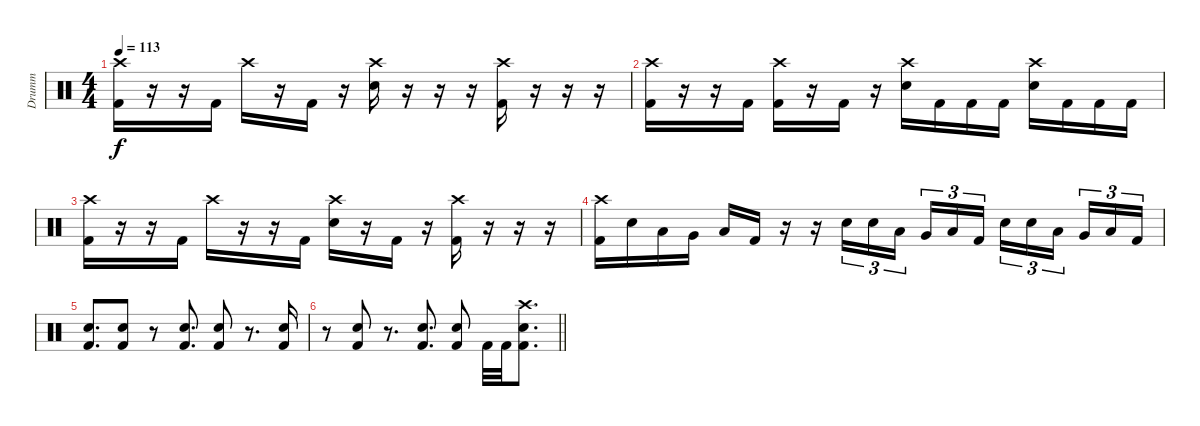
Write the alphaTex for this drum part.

\track ("Drumm" "Drumm") {instrument percussion}
\staff {score}
\articulation defaults
\ts (4 4)
\tempo 113
\clef neutral
\ks c
("Crash high (hit)" "Kick (hit) 2").16{dy f} r.16 r.16 "Kick (hit) 2".16 "Crash high (hit)".16 r.16 "Kick (hit) 2".16 r.16 ("Crash high (hit)" "Electric Snare (hit)").16 r.16 r.16 r.16 ("Crash high (hit)" "Kick (hit) 2").16 r.16 r.16 r.16 |
("Crash high (hit)" "Kick (hit) 2").16 r.16 r.16 "Kick (hit) 2".16 ("Crash high (hit)" "Kick (hit) 2").16 r.16 "Kick (hit) 2".16 r.16 ("Crash high (hit)" "Electric Snare (hit)").16 "Kick (hit) 2".16 "Kick (hit) 2".16 "Kick (hit) 2".16 ("Crash high (hit)" "Electric Snare (hit)").16 "Kick (hit) 2".16 "Kick (hit) 2".16 "Kick (hit) 2".16 |
("Crash high (hit)" "Kick (hit) 2").16 r.16 r.16 "Kick (hit) 2".16 "Crash high (hit)".16 r.16 r.16 "Kick (hit) 2".16 ("Crash high (hit)" "Electric Snare (hit)").16 r.16 "Kick (hit) 2".16 r.16 ("Crash high (hit)" "Kick (hit) 2").16 r.16 r.16 r.16 |
("Crash high (hit)" "Kick (hit) 2").16 "Electric Snare (hit)".16 "Low Tom (hit)".16 "Very Low Tom (hit)".16 "Low Floor Tom (hit)".16 "Kick (hit) 2".16 r.16 r.16 "Electric Snare (hit)".16{tu (3 2)} "Electric Snare (hit)".16{tu (3 2)} "Low Tom (hit)".16{tu (3 2) beam splitsecondary} "Very Low Tom (hit)".16{tu (3 2)} "Low Floor Tom (hit)".16{tu (3 2)} "Kick (hit) 2".16{tu (3 2)} "Electric Snare (hit)".16{tu (3 2)} "Electric Snare (hit)".16{tu (3 2)} "Low Tom (hit)".16{tu (3 2) beam splitsecondary} "Very Low Tom (hit)".16{tu (3 2)} "Low Floor Tom (hit)".16{tu (3 2)} "Kick (hit) 2".16{tu (3 2)} |
("Electric Snare (hit)" "Kick (hit) 2").8{d} ("Electric Snare (hit)" "Kick (hit) 2").8 r.8 ("Electric Snare (hit)" "Kick (hit) 2").8{d} ("Electric Snare (hit)" "Kick (hit) 2").8 r.8{d} ("Electric Snare (hit)" "Kick (hit) 2").16 |
\barLineRight lightlight
r.8 ("Electric Snare (hit)" "Kick (hit) 2").8 r.8{d} ("Electric Snare (hit)" "Kick (hit) 2").8{d} ("Electric Snare (hit)" "Kick (hit) 2").8 "Kick (hit) 2".32 "Kick (hit) 2".32 ("Crash high (hit)" "Electric Snare (hit)" "Kick (hit) 2").8{d}
